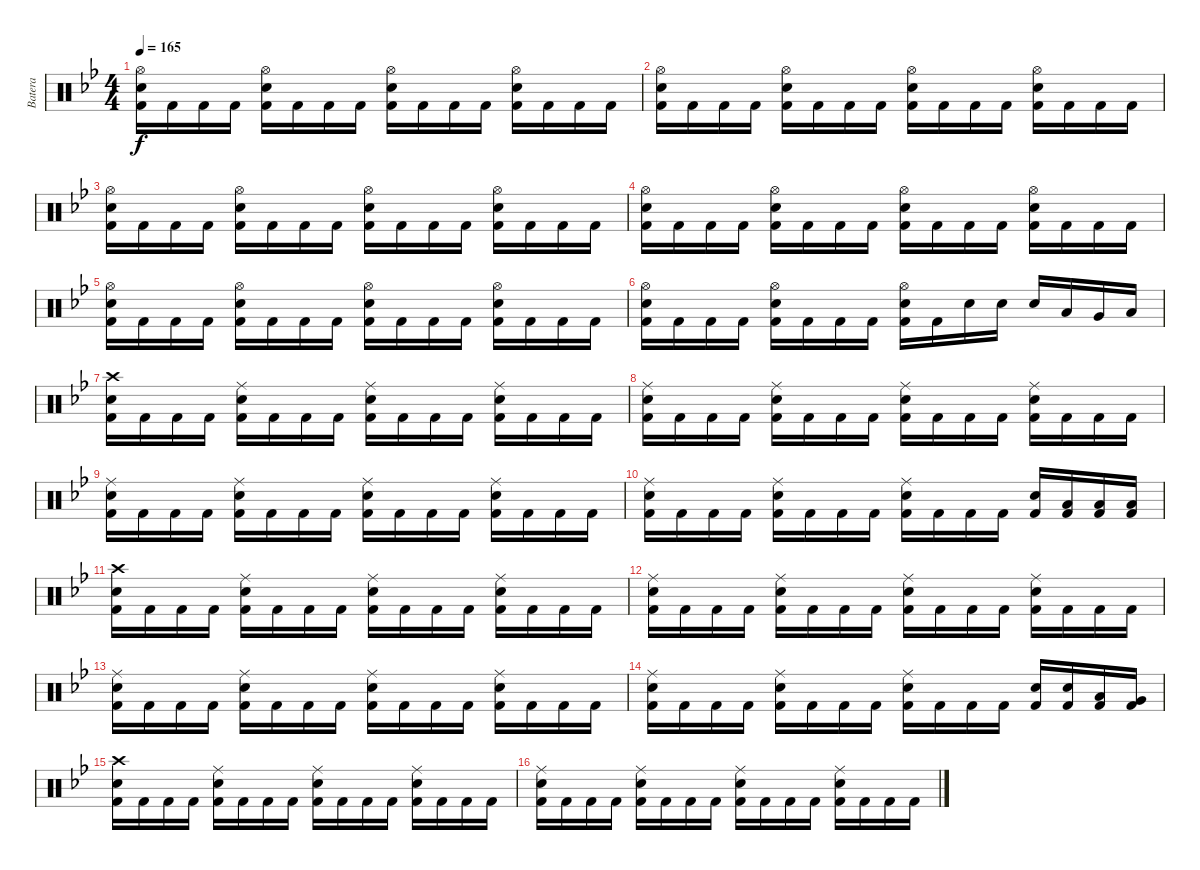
\track ("Batera" "Batera") {instrument percussion}
\staff {score}
\articulation defaults
\ts (4 4)
\tempo 165
\clef neutral
\ks bb
("Hi-Hat (open)" "Electric Snare (hit)" "Kick (hit) 2").16{dy f} "Kick (hit) 2".16 "Kick (hit) 2".16 "Kick (hit) 2".16 ("Hi-Hat (open)" "Electric Snare (hit)" "Kick (hit) 2").16 "Kick (hit) 2".16 "Kick (hit) 2".16 "Kick (hit) 2".16 ("Hi-Hat (open)" "Electric Snare (hit)" "Kick (hit) 2").16 "Kick (hit) 2".16 "Kick (hit) 2".16 "Kick (hit) 2".16 ("Hi-Hat (open)" "Electric Snare (hit)" "Kick (hit) 2").16 "Kick (hit) 2".16 "Kick (hit) 2".16 "Kick (hit) 2".16 |
("Hi-Hat (open)" "Electric Snare (hit)" "Kick (hit) 2").16 "Kick (hit) 2".16 "Kick (hit) 2".16 "Kick (hit) 2".16 ("Hi-Hat (open)" "Electric Snare (hit)" "Kick (hit) 2").16 "Kick (hit) 2".16 "Kick (hit) 2".16 "Kick (hit) 2".16 ("Hi-Hat (open)" "Electric Snare (hit)" "Kick (hit) 2").16 "Kick (hit) 2".16 "Kick (hit) 2".16 "Kick (hit) 2".16 ("Hi-Hat (open)" "Electric Snare (hit)" "Kick (hit) 2").16 "Kick (hit) 2".16 "Kick (hit) 2".16 "Kick (hit) 2".16 |
("Hi-Hat (open)" "Electric Snare (hit)" "Kick (hit) 2").16 "Kick (hit) 2".16 "Kick (hit) 2".16 "Kick (hit) 2".16 ("Hi-Hat (open)" "Electric Snare (hit)" "Kick (hit) 2").16 "Kick (hit) 2".16 "Kick (hit) 2".16 "Kick (hit) 2".16 ("Hi-Hat (open)" "Electric Snare (hit)" "Kick (hit) 2").16 "Kick (hit) 2".16 "Kick (hit) 2".16 "Kick (hit) 2".16 ("Hi-Hat (open)" "Electric Snare (hit)" "Kick (hit) 2").16 "Kick (hit) 2".16 "Kick (hit) 2".16 "Kick (hit) 2".16 |
("Hi-Hat (open)" "Electric Snare (hit)" "Kick (hit) 2").16 "Kick (hit) 2".16 "Kick (hit) 2".16 "Kick (hit) 2".16 ("Hi-Hat (open)" "Electric Snare (hit)" "Kick (hit) 2").16 "Kick (hit) 2".16 "Kick (hit) 2".16 "Kick (hit) 2".16 ("Hi-Hat (open)" "Electric Snare (hit)" "Kick (hit) 2").16 "Kick (hit) 2".16 "Kick (hit) 2".16 "Kick (hit) 2".16 ("Hi-Hat (open)" "Electric Snare (hit)" "Kick (hit) 2").16 "Kick (hit) 2".16 "Kick (hit) 2".16 "Kick (hit) 2".16 |
("Hi-Hat (open)" "Electric Snare (hit)" "Kick (hit) 2").16 "Kick (hit) 2".16 "Kick (hit) 2".16 "Kick (hit) 2".16 ("Hi-Hat (open)" "Electric Snare (hit)" "Kick (hit) 2").16 "Kick (hit) 2".16 "Kick (hit) 2".16 "Kick (hit) 2".16 ("Hi-Hat (open)" "Electric Snare (hit)" "Kick (hit) 2").16 "Kick (hit) 2".16 "Kick (hit) 2".16 "Kick (hit) 2".16 ("Hi-Hat (open)" "Electric Snare (hit)" "Kick (hit) 2").16 "Kick (hit) 2".16 "Kick (hit) 2".16 "Kick (hit) 2".16 |
("Hi-Hat (open)" "Electric Snare (hit)" "Kick (hit) 2").16 "Kick (hit) 2".16 "Kick (hit) 2".16 "Kick (hit) 2".16 ("Hi-Hat (open)" "Electric Snare (hit)" "Kick (hit) 2").16 "Kick (hit) 2".16 "Kick (hit) 2".16 "Kick (hit) 2".16 ("Hi-Hat (open)" "Electric Snare (hit)" "Kick (hit) 2").16 "Kick (hit) 2".16 "Electric Snare (hit)".16 "Electric Snare (hit)".16 "Electric Snare (hit)".16 "Low Floor Tom (hit)".16 "Very Low Tom (hit)".16 "Low Tom (hit)".16 |
("Crash high (hit)" "Electric Snare (hit)" "Kick (hit) 2").16 "Kick (hit) 2".16 "Kick (hit) 2".16 "Kick (hit) 2".16 ("Ride (middle)" "Electric Snare (hit)" "Kick (hit) 2").16 "Kick (hit) 2".16 "Kick (hit) 2".16 "Kick (hit) 2".16 ("Ride (middle)" "Electric Snare (hit)" "Kick (hit) 2").16 "Kick (hit) 2".16 "Kick (hit) 2".16 "Kick (hit) 2".16 ("Ride (middle)" "Electric Snare (hit)" "Kick (hit) 2").16 "Kick (hit) 2".16 "Kick (hit) 2".16 "Kick (hit) 2".16 |
("Ride (middle)" "Electric Snare (hit)" "Kick (hit) 2").16 "Kick (hit) 2".16 "Kick (hit) 2".16 "Kick (hit) 2".16 ("Ride (middle)" "Electric Snare (hit)" "Kick (hit) 2").16 "Kick (hit) 2".16 "Kick (hit) 2".16 "Kick (hit) 2".16 ("Ride (middle)" "Electric Snare (hit)" "Kick (hit) 2").16 "Kick (hit) 2".16 "Kick (hit) 2".16 "Kick (hit) 2".16 ("Ride (middle)" "Electric Snare (hit)" "Kick (hit) 2").16 "Kick (hit) 2".16 "Kick (hit) 2".16 "Kick (hit) 2".16 |
("Ride (middle)" "Electric Snare (hit)" "Kick (hit) 2").16 "Kick (hit) 2".16 "Kick (hit) 2".16 "Kick (hit) 2".16 ("Ride (middle)" "Electric Snare (hit)" "Kick (hit) 2").16 "Kick (hit) 2".16 "Kick (hit) 2".16 "Kick (hit) 2".16 ("Ride (middle)" "Electric Snare (hit)" "Kick (hit) 2").16 "Kick (hit) 2".16 "Kick (hit) 2".16 "Kick (hit) 2".16 ("Ride (middle)" "Electric Snare (hit)" "Kick (hit) 2").16 "Kick (hit) 2".16 "Kick (hit) 2".16 "Kick (hit) 2".16 |
("Ride (middle)" "Electric Snare (hit)" "Kick (hit) 2").16 "Kick (hit) 2".16 "Kick (hit) 2".16 "Kick (hit) 2".16 ("Ride (middle)" "Electric Snare (hit)" "Kick (hit) 2").16 "Kick (hit) 2".16 "Kick (hit) 2".16 "Kick (hit) 2".16 ("Ride (middle)" "Electric Snare (hit)" "Kick (hit) 2").16 "Kick (hit) 2".16 "Kick (hit) 2".16 "Kick (hit) 2".16 ("Electric Snare (hit)" "Kick (hit) 2").16 ("Low Floor Tom (hit)" "Kick (hit) 2").16 ("Low Tom (hit)" "Kick (hit) 2").16 ("Low Floor Tom (hit)" "Kick (hit) 2").16 |
("Crash high (hit)" "Electric Snare (hit)" "Kick (hit) 2").16 "Kick (hit) 2".16 "Kick (hit) 2".16 "Kick (hit) 2".16 ("Ride (middle)" "Electric Snare (hit)" "Kick (hit) 2").16 "Kick (hit) 2".16 "Kick (hit) 2".16 "Kick (hit) 2".16 ("Ride (middle)" "Electric Snare (hit)" "Kick (hit) 2").16 "Kick (hit) 2".16 "Kick (hit) 2".16 "Kick (hit) 2".16 ("Ride (middle)" "Electric Snare (hit)" "Kick (hit) 2").16 "Kick (hit) 2".16 "Kick (hit) 2".16 "Kick (hit) 2".16 |
("Ride (middle)" "Electric Snare (hit)" "Kick (hit) 2").16 "Kick (hit) 2".16 "Kick (hit) 2".16 "Kick (hit) 2".16 ("Ride (middle)" "Electric Snare (hit)" "Kick (hit) 2").16 "Kick (hit) 2".16 "Kick (hit) 2".16 "Kick (hit) 2".16 ("Ride (middle)" "Electric Snare (hit)" "Kick (hit) 2").16 "Kick (hit) 2".16 "Kick (hit) 2".16 "Kick (hit) 2".16 ("Ride (middle)" "Electric Snare (hit)" "Kick (hit) 2").16 "Kick (hit) 2".16 "Kick (hit) 2".16 "Kick (hit) 2".16 |
("Ride (middle)" "Electric Snare (hit)" "Kick (hit) 2").16 "Kick (hit) 2".16 "Kick (hit) 2".16 "Kick (hit) 2".16 ("Ride (middle)" "Electric Snare (hit)" "Kick (hit) 2").16 "Kick (hit) 2".16 "Kick (hit) 2".16 "Kick (hit) 2".16 ("Ride (middle)" "Electric Snare (hit)" "Kick (hit) 2").16 "Kick (hit) 2".16 "Kick (hit) 2".16 "Kick (hit) 2".16 ("Ride (middle)" "Electric Snare (hit)" "Kick (hit) 2").16 "Kick (hit) 2".16 "Kick (hit) 2".16 "Kick (hit) 2".16 |
("Ride (middle)" "Electric Snare (hit)" "Kick (hit) 2").16 "Kick (hit) 2".16 "Kick (hit) 2".16 "Kick (hit) 2".16 ("Ride (middle)" "Electric Snare (hit)" "Kick (hit) 2").16 "Kick (hit) 2".16 "Kick (hit) 2".16 "Kick (hit) 2".16 ("Ride (middle)" "Electric Snare (hit)" "Kick (hit) 2").16 "Kick (hit) 2".16 "Kick (hit) 2".16 "Kick (hit) 2".16 ("Electric Snare (hit)" "Kick (hit) 2").16 ("Electric Snare (hit)" "Kick (hit) 2").16 ("Low Floor Tom (hit)" "Kick (hit) 2").16 ("Very Low Tom (hit)" "Kick (hit) 2").16 |
("Crash high (hit)" "Electric Snare (hit)" "Kick (hit) 2").16 "Kick (hit) 2".16 "Kick (hit) 2".16 "Kick (hit) 2".16 ("Ride (middle)" "Electric Snare (hit)" "Kick (hit) 2").16 "Kick (hit) 2".16 "Kick (hit) 2".16 "Kick (hit) 2".16 ("Ride (middle)" "Electric Snare (hit)" "Kick (hit) 2").16 "Kick (hit) 2".16 "Kick (hit) 2".16 "Kick (hit) 2".16 ("Ride (middle)" "Electric Snare (hit)" "Kick (hit) 2").16 "Kick (hit) 2".16 "Kick (hit) 2".16 "Kick (hit) 2".16 |
("Ride (middle)" "Electric Snare (hit)" "Kick (hit) 2").16 "Kick (hit) 2".16 "Kick (hit) 2".16 "Kick (hit) 2".16 ("Ride (middle)" "Electric Snare (hit)" "Kick (hit) 2").16 "Kick (hit) 2".16 "Kick (hit) 2".16 "Kick (hit) 2".16 ("Ride (middle)" "Electric Snare (hit)" "Kick (hit) 2").16 "Kick (hit) 2".16 "Kick (hit) 2".16 "Kick (hit) 2".16 ("Ride (middle)" "Electric Snare (hit)" "Kick (hit) 2").16 "Kick (hit) 2".16 "Kick (hit) 2".16 "Kick (hit) 2".16
